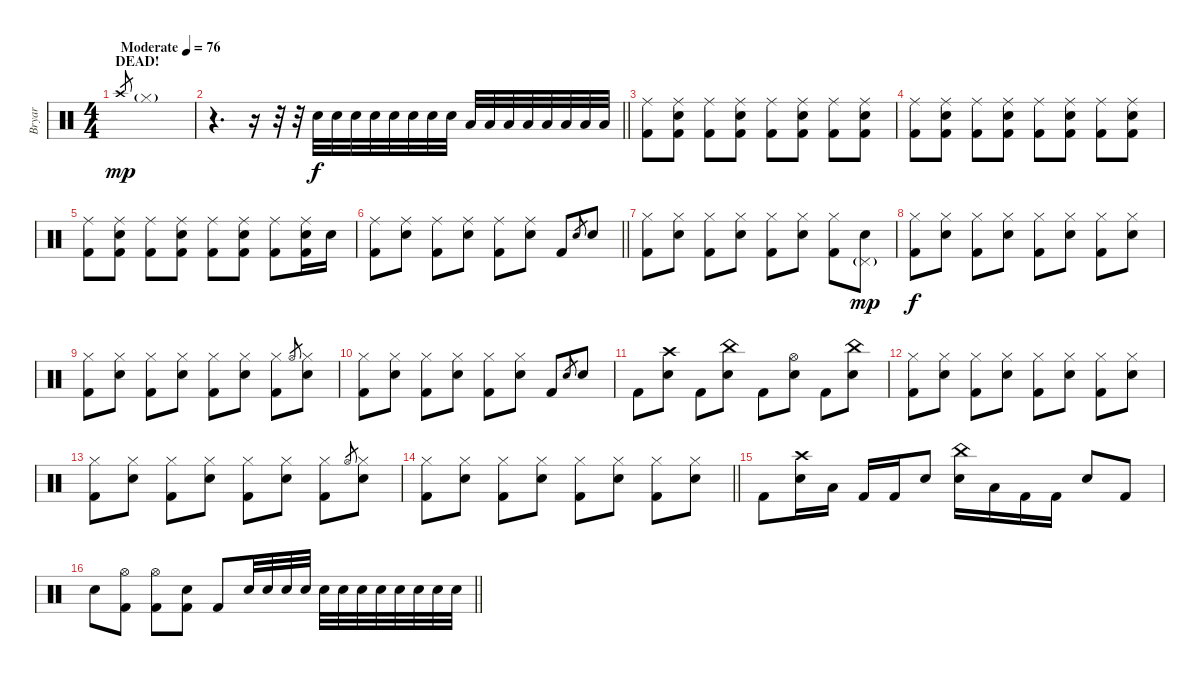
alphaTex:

\track ("Bryar" "Bryar") {instrument percussion}
\staff {score}
\articulation defaults
\ts (4 4)
\section ("" "DEAD!")
\tempo (76 "Moderate")
\tempo 108
\tempo (76 "Moderate")
\clef neutral
\ks c "Crash high (hit)".8{gr dy mp} "Hi-Hat (closed)"{g}.1
|
\barLineRight lightlight
r.4{d} r.16 r.32 r.32 "Electric Snare (hit)".32{dy f} "Electric Snare (hit)".32 "Electric Snare (hit)".32 "Electric Snare (hit)".32 "Electric Snare (hit)".32 "Electric Snare (hit)".32 "Electric Snare (hit)".32 "Electric Snare (hit)".32 "Low Tom (hit)".32 "Low Tom (hit)".32 "Low Tom (hit)".32 "Low Tom (hit)".32 "Low Tom (hit)".32 "Low Tom (hit)".32 "Low Tom (hit)".32 "Low Tom (hit)".32 |
("Ride (middle)" "Kick (hit) 2").8 ("Ride (middle)" "Electric Snare (hit)" "Kick (hit) 2").8 ("Ride (middle)" "Kick (hit) 2").8 ("Ride (middle)" "Electric Snare (hit)" "Kick (hit) 2").8 ("Ride (middle)" "Kick (hit) 2").8 ("Ride (middle)" "Electric Snare (hit)" "Kick (hit) 2").8 ("Ride (middle)" "Kick (hit) 2").8 ("Ride (middle)" "Electric Snare (hit)" "Kick (hit) 2").8 |
("Ride (middle)" "Kick (hit) 2").8 ("Ride (middle)" "Electric Snare (hit)" "Kick (hit) 2").8 ("Ride (middle)" "Kick (hit) 2").8 ("Ride (middle)" "Electric Snare (hit)" "Kick (hit) 2").8 ("Ride (middle)" "Kick (hit) 2").8 ("Ride (middle)" "Electric Snare (hit)" "Kick (hit) 2").8 ("Ride (middle)" "Kick (hit) 2").8 ("Ride (middle)" "Electric Snare (hit)" "Kick (hit) 2").8 |
("Ride (middle)" "Kick (hit) 2").8 ("Ride (middle)" "Electric Snare (hit)" "Kick (hit) 2").8 ("Ride (middle)" "Kick (hit) 2").8 ("Ride (middle)" "Electric Snare (hit)" "Kick (hit) 2").8 ("Ride (middle)" "Kick (hit) 2").8 ("Ride (middle)" "Electric Snare (hit)" "Kick (hit) 2").8 ("Ride (middle)" "Kick (hit) 2").8 ("Ride (middle)" "Electric Snare (hit)" "Kick (hit) 2").16 "Electric Snare (hit)".16 |
\barLineRight lightlight
("Ride (middle)" "Kick (hit) 2").8 ("Ride (middle)" "Electric Snare (hit)").8 ("Ride (middle)" "Kick (hit) 2").8 ("Ride (middle)" "Electric Snare (hit)").8 ("Ride (middle)" "Kick (hit) 2").8 ("Ride (middle)" "Electric Snare (hit)").8 "Kick (hit) 2".8 "Electric Snare (hit)".8{gr} "Electric Snare (hit)".8 |
("Hi-Hat (closed)" "Kick (hit) 2").8 ("Hi-Hat (closed)" "Electric Snare (hit)").8 ("Hi-Hat (closed)" "Kick (hit) 2").8 ("Hi-Hat (closed)" "Electric Snare (hit)").8 ("Hi-Hat (closed)" "Kick (hit) 2").8 ("Hi-Hat (closed)" "Electric Snare (hit)").8 ("Hi-Hat (closed)" "Kick (hit) 2").8 ("Pedal Hi-Hat (hit)"{g} "Electric Snare (hit)").8{dy mp} |
("Hi-Hat (closed)" "Kick (hit) 2").8{dy f} ("Hi-Hat (closed)" "Electric Snare (hit)").8 ("Hi-Hat (closed)" "Kick (hit) 2").8 ("Hi-Hat (closed)" "Electric Snare (hit)").8 ("Hi-Hat (closed)" "Kick (hit) 2").8 ("Hi-Hat (closed)" "Electric Snare (hit)").8 ("Hi-Hat (closed)" "Kick (hit) 2").8 ("Hi-Hat (closed)" "Electric Snare (hit)").8 |
("Hi-Hat (closed)" "Kick (hit) 2").8 ("Hi-Hat (closed)" "Electric Snare (hit)").8 ("Hi-Hat (closed)" "Kick (hit) 2").8 ("Hi-Hat (closed)" "Electric Snare (hit)").8 ("Hi-Hat (closed)" "Kick (hit) 2").8 ("Hi-Hat (closed)" "Electric Snare (hit)").8 ("Hi-Hat (closed)" "Kick (hit) 2").8 "Hi-Hat (open)".8{gr} ("Hi-Hat (closed)" "Electric Snare (hit)").8 |
("Hi-Hat (closed)" "Kick (hit) 2").8 ("Hi-Hat (closed)" "Electric Snare (hit)").8 ("Hi-Hat (closed)" "Kick (hit) 2").8 ("Hi-Hat (closed)" "Electric Snare (hit)").8 ("Hi-Hat (closed)" "Kick (hit) 2").8 ("Hi-Hat (closed)" "Electric Snare (hit)").8 "Kick (hit) 2".8 "Electric Snare (hit)".8{gr} "Electric Snare (hit)".8 |
"Kick (hit) 2".8 ("Crash high (hit)" "Electric Snare (hit)").8 "Kick (hit) 2".8 ("China (hit)" "Electric Snare (hit)").8 "Kick (hit) 2".8 ("Hi-Hat (open)" "Electric Snare (hit)").8 "Kick (hit) 2".8 ("China (hit)" "Electric Snare (hit)").8 |
("Hi-Hat (closed)" "Kick (hit) 2").8 ("Hi-Hat (closed)" "Electric Snare (hit)").8 ("Hi-Hat (closed)" "Kick (hit) 2").8 ("Hi-Hat (closed)" "Electric Snare (hit)").8 ("Hi-Hat (closed)" "Kick (hit) 2").8 ("Hi-Hat (closed)" "Electric Snare (hit)").8 ("Hi-Hat (closed)" "Kick (hit) 2").8 ("Hi-Hat (closed)" "Electric Snare (hit)").8 |
("Hi-Hat (closed)" "Kick (hit) 2").8 ("Hi-Hat (closed)" "Electric Snare (hit)").8 ("Hi-Hat (closed)" "Kick (hit) 2").8 ("Hi-Hat (closed)" "Electric Snare (hit)").8 ("Hi-Hat (closed)" "Kick (hit) 2").8 ("Hi-Hat (closed)" "Electric Snare (hit)").8 ("Hi-Hat (closed)" "Kick (hit) 2").8 "Hi-Hat (open)".8{gr} ("Hi-Hat (closed)" "Electric Snare (hit)").8 |
\barLineRight lightlight
("Hi-Hat (closed)" "Kick (hit) 2").8 ("Hi-Hat (closed)" "Electric Snare (hit)").8 ("Hi-Hat (closed)" "Kick (hit) 2").8 ("Hi-Hat (closed)" "Electric Snare (hit)").8 ("Hi-Hat (closed)" "Kick (hit) 2").8 ("Hi-Hat (closed)" "Electric Snare (hit)").8 ("Hi-Hat (closed)" "Kick (hit) 2").8 ("Hi-Hat (closed)" "Electric Snare (hit)").8 |
"Kick (hit) 2".8 ("Crash high (hit)" "Electric Snare (hit)").16 "Low Tom (hit)".16 "Kick (hit) 2".16 "Kick (hit) 2".16 "Electric Snare (hit)".8 ("China (hit)" "Electric Snare (hit)").16 "Low Tom (hit)".16 "Kick (hit) 2".16 "Kick (hit) 2".16 "Electric Snare (hit)".8 "Kick (hit) 2".8 |
\barLineRight lightlight "Electric Snare (hit)".8
("Hi-Hat (open)" "Kick (hit) 2").8 ("Hi-Hat (open)" "Kick (hit) 2").8 ("Electric Snare (hit)" "Kick (hit) 2").8 "Kick (hit) 2".8 "Electric Snare (hit)".32 "Electric Snare (hit)".32 "Electric Snare (hit)".32 "Electric Snare (hit)".32 "Electric Snare (hit)".32 "Electric Snare (hit)".32 "Electric Snare (hit)".32 "Electric Snare (hit)".32 "Electric Snare (hit)".32 "Electric Snare (hit)".32 "Electric Snare (hit)".32 "Electric Snare (hit)".32
